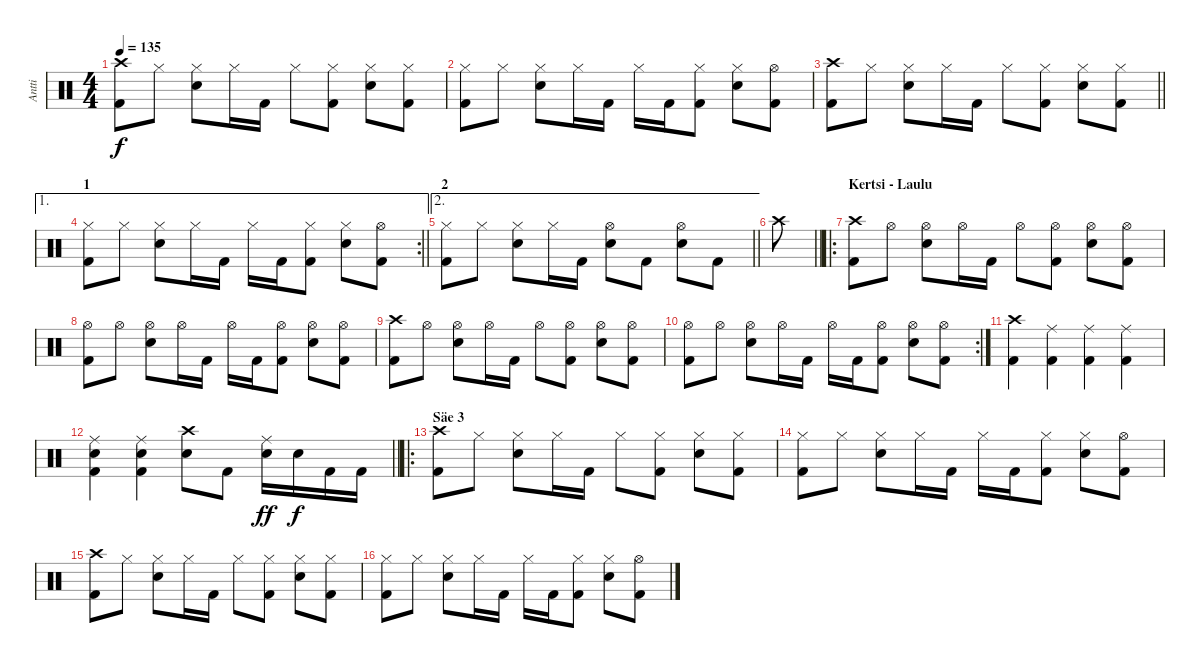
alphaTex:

\track ("Antti" "Antti") {instrument percussion}
\staff {score}
\articulation defaults
\ts (4 4)
\tempo 135
\clef neutral
\ks c
("Crash high (hit)" "Kick (hit) 2").8{dy f} "Hi-Hat (closed)".8 ("Hi-Hat (closed)" "Snare (hit) 2").8 "Hi-Hat (closed)".16 "Kick (hit) 2".16 "Hi-Hat (closed)".8 ("Hi-Hat (closed)" "Kick (hit) 2").8 ("Hi-Hat (closed)" "Snare (hit) 2").8 ("Hi-Hat (closed)" "Kick (hit) 2").8 |
("Hi-Hat (closed)" "Kick (hit) 2").8 "Hi-Hat (closed)".8 ("Hi-Hat (closed)" "Snare (hit) 2").8 "Hi-Hat (closed)".16 "Kick (hit) 2".16 "Hi-Hat (closed)".16 "Kick (hit) 2".16 ("Hi-Hat (closed)" "Kick (hit) 2").8 ("Hi-Hat (closed)" "Snare (hit) 2").8 ("Hi-Hat (open)" "Kick (hit) 2").8 |
\barLineRight lightlight
("Crash high (hit)" "Kick (hit) 2").8 "Hi-Hat (closed)".8 ("Hi-Hat (closed)" "Snare (hit) 2").8 "Hi-Hat (closed)".16 "Kick (hit) 2".16 "Hi-Hat (closed)".8 ("Hi-Hat (closed)" "Kick (hit) 2").8 ("Hi-Hat (closed)" "Snare (hit) 2").8 ("Hi-Hat (closed)" "Kick (hit) 2").8 |
\ae 1
\rc 2
\section ("" "1")
\barLineRight lightlight
("Hi-Hat (closed)" "Kick (hit) 2").8 "Hi-Hat (closed)".8 ("Hi-Hat (closed)" "Snare (hit) 2").8 "Hi-Hat (closed)".16 "Kick (hit) 2".16 "Hi-Hat (closed)".16 "Kick (hit) 2".16 ("Hi-Hat (closed)" "Kick (hit) 2").8 ("Hi-Hat (closed)" "Snare (hit) 2").8 ("Hi-Hat (open)" "Kick (hit) 2").8 |
\ae 2
\section ("" "2")
\barLineRight lightlight
("Hi-Hat (closed)" "Kick (hit) 2").8 "Hi-Hat (closed)".8 ("Hi-Hat (closed)" "Snare (hit) 2").8 "Hi-Hat (closed)".16 "Kick (hit) 2".16 ("Hi-Hat (open)" "Snare (hit) 2").8 "Kick (hit) 2".8 ("Hi-Hat (open)" "Snare (hit) 2").8 "Kick (hit) 2".8 |
\barLineRight lightlight "Crash high (hit)".8
|
\ro
\section ("" "Kertsi - Laulu")
("Crash high (hit)" "Kick (hit) 2").8 "Hi-Hat (open)".8 ("Hi-Hat (open)" "Snare (hit) 2").8 "Hi-Hat (open)".16 "Kick (hit) 2".16 "Hi-Hat (open)".8 ("Hi-Hat (open)" "Kick (hit) 2").8 ("Hi-Hat (open)" "Snare (hit) 2").8 ("Hi-Hat (open)" "Kick (hit) 2").8 |
("Hi-Hat (open)" "Kick (hit) 2").8 "Hi-Hat (open)".8 ("Hi-Hat (open)" "Snare (hit) 2").8 "Hi-Hat (open)".16 "Kick (hit) 2".16 "Hi-Hat (open)".16 "Kick (hit) 2".16 ("Hi-Hat (open)" "Kick (hit) 2").8 ("Hi-Hat (open)" "Snare (hit) 2").8 ("Hi-Hat (open)" "Kick (hit) 2").8 |
("Crash high (hit)" "Kick (hit) 2").8 "Hi-Hat (open)".8 ("Hi-Hat (open)" "Snare (hit) 2").8 "Hi-Hat (open)".16 "Kick (hit) 2".16 "Hi-Hat (open)".8 ("Hi-Hat (open)" "Kick (hit) 2").8 ("Hi-Hat (open)" "Snare (hit) 2").8 ("Hi-Hat (open)" "Kick (hit) 2").8 |
\rc 2
("Hi-Hat (open)" "Kick (hit) 2").8 "Hi-Hat (open)".8 ("Hi-Hat (open)" "Snare (hit) 2").8 "Hi-Hat (open)".16 "Kick (hit) 2".16 "Hi-Hat (open)".16 "Kick (hit) 2".16 ("Hi-Hat (open)" "Kick (hit) 2").8 ("Hi-Hat (open)" "Snare (hit) 2").8 ("Hi-Hat (open)" "Kick (hit) 2").8 |
("Crash high (hit)" "Kick (hit) 2").4 ("Ride (middle)" "Kick (hit) 2").4 ("Ride (middle)" "Kick (hit) 2").4 ("Ride (middle)" "Kick (hit) 2").4 |
\barLineRight lightlight
("Ride (middle)" "Snare (hit) 2" "Kick (hit) 2").4 ("Ride (middle)" "Snare (hit) 2" "Kick (hit) 2").4 ("Crash high (hit)" "Snare (hit) 2").8 "Kick (hit) 2".8 ("Ride (middle)" "Snare (hit) 2").16{dy ff} "Snare (hit) 2".16{dy f} "Kick (hit) 2".16 "Kick (hit) 2".16 |
\ro
\section ("" "Säe 3")
("Crash high (hit)" "Kick (hit) 2").8 "Hi-Hat (closed)".8 ("Hi-Hat (closed)" "Snare (hit) 2").8 "Hi-Hat (closed)".16 "Kick (hit) 2".16 "Hi-Hat (closed)".8 ("Hi-Hat (closed)" "Kick (hit) 2").8 ("Hi-Hat (closed)" "Snare (hit) 2").8 ("Hi-Hat (closed)" "Kick (hit) 2").8 |
("Hi-Hat (closed)" "Kick (hit) 2").8 "Hi-Hat (closed)".8 ("Hi-Hat (closed)" "Snare (hit) 2").8 "Hi-Hat (closed)".16 "Kick (hit) 2".16 "Hi-Hat (closed)".16 "Kick (hit) 2".16 ("Hi-Hat (closed)" "Kick (hit) 2").8 ("Hi-Hat (closed)" "Snare (hit) 2").8 ("Hi-Hat (open)" "Kick (hit) 2").8 |
("Crash high (hit)" "Kick (hit) 2").8 "Hi-Hat (closed)".8 ("Hi-Hat (closed)" "Snare (hit) 2").8 "Hi-Hat (closed)".16 "Kick (hit) 2".16 "Hi-Hat (closed)".8 ("Hi-Hat (closed)" "Kick (hit) 2").8 ("Hi-Hat (closed)" "Snare (hit) 2").8 ("Hi-Hat (closed)" "Kick (hit) 2").8 |
("Hi-Hat (closed)" "Kick (hit) 2").8 "Hi-Hat (closed)".8 ("Hi-Hat (closed)" "Snare (hit) 2").8 "Hi-Hat (closed)".16 "Kick (hit) 2".16 "Hi-Hat (closed)".16 "Kick (hit) 2".16 ("Hi-Hat (closed)" "Kick (hit) 2").8 ("Hi-Hat (closed)" "Snare (hit) 2").8 ("Hi-Hat (open)" "Kick (hit) 2").8
